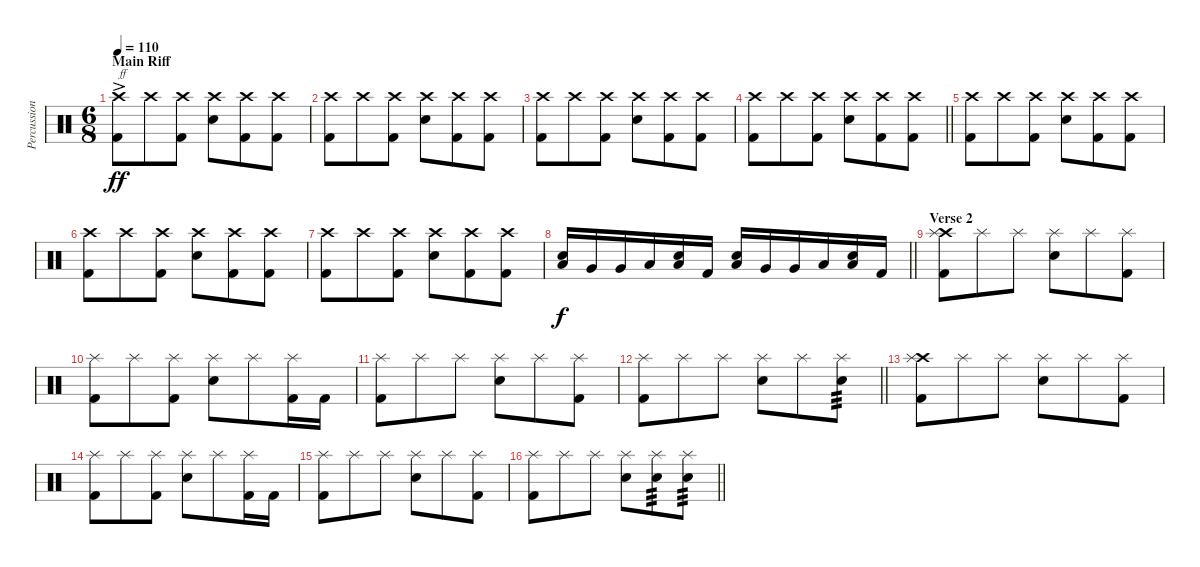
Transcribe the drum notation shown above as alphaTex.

\track ("Percussion" "Percussion") {instrument percussion}
\staff {score}
\articulation defaults
\ts (6 8)
\section ("" "Main Riff")
\tempo 110
\clef neutral
\ks c
("Crash high (hit)"{ac} "Kick (hit) 2"{ac}).8{txt "ff" dy ff} "Crash high (hit)".8 ("Crash high (hit)" "Kick (hit) 2").8 ("Crash high (hit)" "Snare (hit) 2").8 ("Crash high (hit)" "Kick (hit) 2").8 ("Crash high (hit)" "Kick (hit) 2").8 |
("Crash high (hit)" "Kick (hit) 2").8 "Crash high (hit)".8 ("Crash high (hit)" "Kick (hit) 2").8 ("Crash high (hit)" "Snare (hit) 2").8 ("Crash high (hit)" "Kick (hit) 2").8 ("Crash high (hit)" "Kick (hit) 2").8 |
("Crash high (hit)" "Kick (hit) 2").8 "Crash high (hit)".8 ("Crash high (hit)" "Kick (hit) 2").8 ("Crash high (hit)" "Snare (hit) 2").8 ("Crash high (hit)" "Kick (hit) 2").8 ("Crash high (hit)" "Kick (hit) 2").8 |
\barLineRight lightlight
("Crash high (hit)" "Kick (hit) 2").8 "Crash high (hit)".8 ("Crash high (hit)" "Kick (hit) 2").8 ("Crash high (hit)" "Snare (hit) 2").8 ("Crash high (hit)" "Kick (hit) 2").8 ("Crash high (hit)" "Kick (hit) 2").8 |
\section ("" "")
("Crash high (hit)" "Kick (hit) 2").8 "Crash high (hit)".8 ("Crash high (hit)" "Kick (hit) 2").8 ("Crash high (hit)" "Snare (hit) 2").8 ("Crash high (hit)" "Kick (hit) 2").8 ("Crash high (hit)" "Kick (hit) 2").8 |
("Crash high (hit)" "Kick (hit) 2").8 "Crash high (hit)".8 ("Crash high (hit)" "Kick (hit) 2").8 ("Crash high (hit)" "Snare (hit) 2").8 ("Crash high (hit)" "Kick (hit) 2").8 ("Crash high (hit)" "Kick (hit) 2").8 |
("Crash high (hit)" "Kick (hit) 2").8 "Crash high (hit)".8 ("Crash high (hit)" "Kick (hit) 2").8 ("Crash high (hit)" "Snare (hit) 2").8 ("Crash high (hit)" "Kick (hit) 2").8 ("Crash high (hit)" "Kick (hit) 2").8 |
\barLineRight lightlight
("Snare (hit) 2" "Low Tom (hit)").16{dy f} "Very Low Tom (hit)".16 "Very Low Tom (hit)".16 "Low Floor Tom (hit)".16 ("Snare (hit) 2" "Low Floor Tom (hit)").16 "Kick (hit) 2".16 ("Snare (hit) 2" "Low Tom (hit)").16 "Very Low Tom (hit)".16 "Very Low Tom (hit)".16 "Low Floor Tom (hit)".16 ("Snare (hit) 2" "Low Floor Tom (hit)").16 "Kick (hit) 2".16 |
\section ("" "Verse 2")
("Crash high (hit)" "Splash (hit)" "Kick (hit) 2").8 "Splash (hit)".8 "Splash (hit)".8 ("Splash (hit)" "Snare (hit) 2").8 "Splash (hit)".8 ("Splash (hit)" "Kick (hit) 2").8 |
("Splash (hit)" "Kick (hit) 2").8 "Splash (hit)".8 ("Splash (hit)" "Kick (hit) 2").8 ("Splash (hit)" "Snare (hit) 2").8 "Splash (hit)".8 ("Splash (hit)" "Kick (hit) 2").16 "Kick (hit) 2".16 |
("Splash (hit)" "Kick (hit) 2").8 "Splash (hit)".8 "Splash (hit)".8 ("Splash (hit)" "Snare (hit) 2").8 "Splash (hit)".8 ("Splash (hit)" "Kick (hit) 2").8 |
\barLineRight lightlight
("Splash (hit)" "Kick (hit) 2").8 "Splash (hit)".8 "Splash (hit)".8 ("Splash (hit)" "Snare (hit) 2").8 "Splash (hit)".8 ("Splash (hit)" "Snare (hit) 2").8{tp 3} |
\section ("" "")
("Crash high (hit)" "Splash (hit)" "Kick (hit) 2").8 "Splash (hit)".8 "Splash (hit)".8 ("Splash (hit)" "Snare (hit) 2").8 "Splash (hit)".8 ("Splash (hit)" "Kick (hit) 2").8 |
("Splash (hit)" "Kick (hit) 2").8 "Splash (hit)".8 ("Splash (hit)" "Kick (hit) 2").8 ("Splash (hit)" "Snare (hit) 2").8 "Splash (hit)".8 ("Splash (hit)" "Kick (hit) 2").16 "Kick (hit) 2".16 |
("Splash (hit)" "Kick (hit) 2").8 "Splash (hit)".8 "Splash (hit)".8 ("Splash (hit)" "Snare (hit) 2").8 "Splash (hit)".8 ("Splash (hit)" "Kick (hit) 2").8 |
\barLineRight lightlight
("Splash (hit)" "Kick (hit) 2").8 "Splash (hit)".8 "Splash (hit)".8 ("Splash (hit)" "Snare (hit) 2").8 ("Splash (hit)" "Snare (hit) 2").8{tp 3} ("Splash (hit)" "Snare (hit) 2").8{tp 3}
